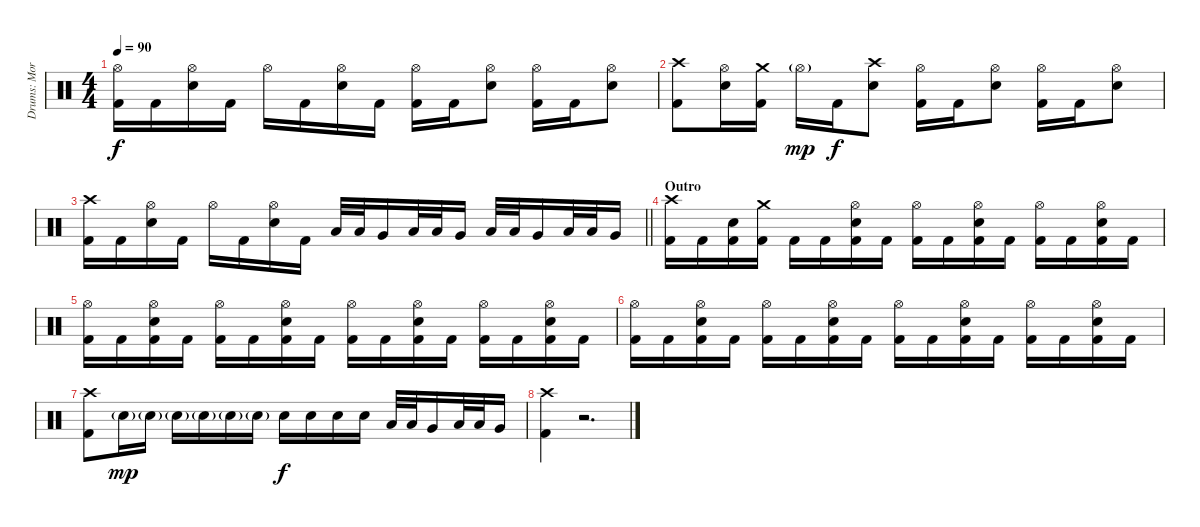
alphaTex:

\track ("Drums: Morten Færøvig" "Drums: Mor") {instrument percussion}
\staff {score}
\articulation defaults
\ts (4 4)
\tempo 90
\clef neutral
\ks aminor
("Hi-Hat (open)" "Kick (hit) 2").16{dy f} "Kick (hit) 2".16 ("Hi-Hat (open)" "Electric Snare (hit)").16 "Kick (hit) 2".16 "Hi-Hat (open)".16 "Kick (hit) 2".16 ("Hi-Hat (open)" "Electric Snare (hit)").16 "Kick (hit) 2".16 ("Hi-Hat (open)" "Kick (hit) 2").16 "Kick (hit) 2".16 ("Hi-Hat (open)" "Electric Snare (hit)").8 ("Hi-Hat (open)" "Kick (hit) 2").16 "Kick (hit) 2".16 ("Hi-Hat (open)" "Electric Snare (hit)").8 |
("Crash high (hit)" "Kick (hit) 2").8 ("Hi-Hat (open)" "Electric Snare (hit)").16 ("Crash medium (hit)" "Kick (hit) 2").16 "Hi-Hat (open)"{g}.16{dy mp} "Kick (hit) 2".16{dy f} ("Crash high (hit)" "Electric Snare (hit)").8 ("Hi-Hat (open)" "Kick (hit) 2").16 "Kick (hit) 2".16 ("Hi-Hat (open)" "Electric Snare (hit)").8 ("Hi-Hat (open)" "Kick (hit) 2").16 "Kick (hit) 2".16 ("Hi-Hat (open)" "Electric Snare (hit)").8 |
\barLineRight lightlight
("Crash high (hit)" "Kick (hit) 2").16 "Kick (hit) 2".16 ("Hi-Hat (open)" "Electric Snare (hit)").16 "Kick (hit) 2".16 "Hi-Hat (open)".16 "Kick (hit) 2".16 ("Hi-Hat (open)" "Electric Snare (hit)").16 "Kick (hit) 2".16 "Low Tom (hit)".32 "Low Tom (hit)".32 "Very Low Tom (hit)".16 "Low Tom (hit)".32 "Low Tom (hit)".32 "Very Low Tom (hit)".16 "Low Tom (hit)".32 "Low Tom (hit)".32 "Very Low Tom (hit)".16 "Low Tom (hit)".32 "Low Tom (hit)".32 "Very Low Tom (hit)".16 |
\section ("" "Outro")
("Crash high (hit)" "Kick (hit) 2").16 "Kick (hit) 2".16 ("Electric Snare (hit)" "Kick (hit) 2").16 ("Crash medium (hit)" "Kick (hit) 2").16 "Kick (hit) 2".16 "Kick (hit) 2".16 ("Hi-Hat (open)" "Electric Snare (hit)" "Kick (hit) 2").16 "Kick (hit) 2".16 ("Hi-Hat (open)" "Kick (hit) 2").16 "Kick (hit) 2".16 ("Hi-Hat (open)" "Electric Snare (hit)" "Kick (hit) 2").16 "Kick (hit) 2".16 ("Hi-Hat (open)" "Kick (hit) 2").16 "Kick (hit) 2".16 ("Hi-Hat (open)" "Electric Snare (hit)" "Kick (hit) 2").16 "Kick (hit) 2".16 |
("Hi-Hat (open)" "Kick (hit) 2").16 "Kick (hit) 2".16 ("Hi-Hat (open)" "Electric Snare (hit)" "Kick (hit) 2").16 "Kick (hit) 2".16 ("Hi-Hat (open)" "Kick (hit) 2").16 "Kick (hit) 2".16 ("Hi-Hat (open)" "Electric Snare (hit)" "Kick (hit) 2").16 "Kick (hit) 2".16 ("Hi-Hat (open)" "Kick (hit) 2").16 "Kick (hit) 2".16 ("Hi-Hat (open)" "Electric Snare (hit)" "Kick (hit) 2").16 "Kick (hit) 2".16 ("Hi-Hat (open)" "Kick (hit) 2").16 "Kick (hit) 2".16 ("Hi-Hat (open)" "Electric Snare (hit)" "Kick (hit) 2").16 "Kick (hit) 2".16 |
("Hi-Hat (open)" "Kick (hit) 2").16 "Kick (hit) 2".16 ("Hi-Hat (open)" "Electric Snare (hit)" "Kick (hit) 2").16 "Kick (hit) 2".16 ("Hi-Hat (open)" "Kick (hit) 2").16 "Kick (hit) 2".16 ("Hi-Hat (open)" "Electric Snare (hit)" "Kick (hit) 2").16 "Kick (hit) 2".16 ("Hi-Hat (open)" "Kick (hit) 2").16 "Kick (hit) 2".16 ("Hi-Hat (open)" "Electric Snare (hit)" "Kick (hit) 2").16 "Kick (hit) 2".16 ("Hi-Hat (open)" "Kick (hit) 2").16 "Kick (hit) 2".16 ("Hi-Hat (open)" "Electric Snare (hit)" "Kick (hit) 2").16 "Kick (hit) 2".16 |
("Crash high (hit)" "Kick (hit) 2").8 "Electric Snare (hit)"{g}.16{dy mp} "Electric Snare (hit)"{g}.16 "Electric Snare (hit)"{g}.16 "Electric Snare (hit)"{g}.16 "Electric Snare (hit)"{g}.16 "Electric Snare (hit)"{g}.16 "Electric Snare (hit)".16{dy f} "Electric Snare (hit)".16 "Electric Snare (hit)".16 "Electric Snare (hit)".16 "Low Tom (hit)".32 "Low Tom (hit)".32 "Very Low Tom (hit)".16 "Low Tom (hit)".32 "Low Tom (hit)".32 "Very Low Tom (hit)".16 |
("Crash high (hit)" "Kick (hit) 2").4 r.2{d}
